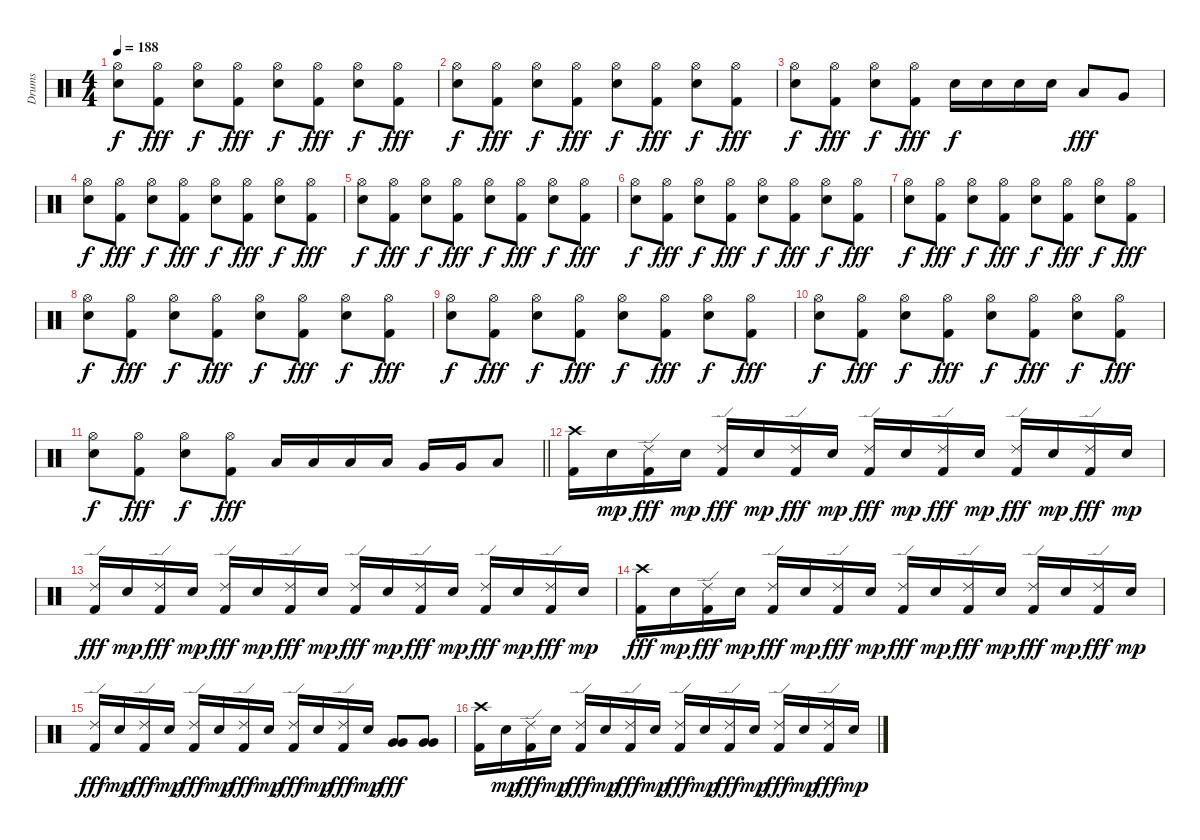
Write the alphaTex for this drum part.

\track ("Drums" "Drums") {instrument percussion}
\staff {score}
\articulation defaults
\ts (4 4)
\tempo 188
\clef neutral
\ks c
("Hi-Hat (open)" "Electric Snare (hit)").8{dy f} ("Hi-Hat (open)" "Kick (hit) 2").8{dy fff} ("Hi-Hat (open)" "Electric Snare (hit)").8{dy f} ("Hi-Hat (open)" "Kick (hit) 2").8{dy fff} ("Hi-Hat (open)" "Electric Snare (hit)").8{dy f} ("Hi-Hat (open)" "Kick (hit) 2").8{dy fff} ("Hi-Hat (open)" "Electric Snare (hit)").8{dy f} ("Hi-Hat (open)" "Kick (hit) 2").8{dy fff} |
("Hi-Hat (open)" "Electric Snare (hit)").8{dy f} ("Hi-Hat (open)" "Kick (hit) 2").8{dy fff} ("Hi-Hat (open)" "Electric Snare (hit)").8{dy f} ("Hi-Hat (open)" "Kick (hit) 2").8{dy fff} ("Hi-Hat (open)" "Electric Snare (hit)").8{dy f} ("Hi-Hat (open)" "Kick (hit) 2").8{dy fff} ("Hi-Hat (open)" "Electric Snare (hit)").8{dy f} ("Hi-Hat (open)" "Kick (hit) 2").8{dy fff} |
("Hi-Hat (open)" "Electric Snare (hit)").8{dy f} ("Hi-Hat (open)" "Kick (hit) 2").8{dy fff} ("Hi-Hat (open)" "Electric Snare (hit)").8{dy f} ("Hi-Hat (open)" "Kick (hit) 2").8{dy fff} "Electric Snare (hit)".16{dy f} "Electric Snare (hit)".16 "Electric Snare (hit)".16 "Electric Snare (hit)".16 "Low Tom (hit)".8{dy fff} "Very Low Tom (hit)".8 |
("Hi-Hat (open)" "Electric Snare (hit)").8{dy f} ("Hi-Hat (open)" "Kick (hit) 2").8{dy fff} ("Hi-Hat (open)" "Electric Snare (hit)").8{dy f} ("Hi-Hat (open)" "Kick (hit) 2").8{dy fff} ("Hi-Hat (open)" "Electric Snare (hit)").8{dy f} ("Hi-Hat (open)" "Kick (hit) 2").8{dy fff} ("Hi-Hat (open)" "Electric Snare (hit)").8{dy f} ("Hi-Hat (open)" "Kick (hit) 2").8{dy fff} |
("Hi-Hat (open)" "Electric Snare (hit)").8{dy f} ("Hi-Hat (open)" "Kick (hit) 2").8{dy fff} ("Hi-Hat (open)" "Electric Snare (hit)").8{dy f} ("Hi-Hat (open)" "Kick (hit) 2").8{dy fff} ("Hi-Hat (open)" "Electric Snare (hit)").8{dy f} ("Hi-Hat (open)" "Kick (hit) 2").8{dy fff} ("Hi-Hat (open)" "Electric Snare (hit)").8{dy f} ("Hi-Hat (open)" "Kick (hit) 2").8{dy fff} |
("Hi-Hat (open)" "Electric Snare (hit)").8{dy f} ("Hi-Hat (open)" "Kick (hit) 2").8{dy fff} ("Hi-Hat (open)" "Electric Snare (hit)").8{dy f} ("Hi-Hat (open)" "Kick (hit) 2").8{dy fff} ("Hi-Hat (open)" "Electric Snare (hit)").8{dy f} ("Hi-Hat (open)" "Kick (hit) 2").8{dy fff} ("Hi-Hat (open)" "Electric Snare (hit)").8{dy f} ("Hi-Hat (open)" "Kick (hit) 2").8{dy fff} |
("Hi-Hat (open)" "Electric Snare (hit)").8{dy f} ("Hi-Hat (open)" "Kick (hit) 2").8{dy fff} ("Hi-Hat (open)" "Electric Snare (hit)").8{dy f} ("Hi-Hat (open)" "Kick (hit) 2").8{dy fff} ("Hi-Hat (open)" "Electric Snare (hit)").8{dy f} ("Hi-Hat (open)" "Kick (hit) 2").8{dy fff} ("Hi-Hat (open)" "Electric Snare (hit)").8{dy f} ("Hi-Hat (open)" "Kick (hit) 2").8{dy fff} |
("Hi-Hat (open)" "Electric Snare (hit)").8{dy f} ("Hi-Hat (open)" "Kick (hit) 2").8{dy fff} ("Hi-Hat (open)" "Electric Snare (hit)").8{dy f} ("Hi-Hat (open)" "Kick (hit) 2").8{dy fff} ("Hi-Hat (open)" "Electric Snare (hit)").8{dy f} ("Hi-Hat (open)" "Kick (hit) 2").8{dy fff} ("Hi-Hat (open)" "Electric Snare (hit)").8{dy f} ("Hi-Hat (open)" "Kick (hit) 2").8{dy fff} |
("Hi-Hat (open)" "Electric Snare (hit)").8{dy f} ("Hi-Hat (open)" "Kick (hit) 2").8{dy fff} ("Hi-Hat (open)" "Electric Snare (hit)").8{dy f} ("Hi-Hat (open)" "Kick (hit) 2").8{dy fff} ("Hi-Hat (open)" "Electric Snare (hit)").8{dy f} ("Hi-Hat (open)" "Kick (hit) 2").8{dy fff} ("Hi-Hat (open)" "Electric Snare (hit)").8{dy f} ("Hi-Hat (open)" "Kick (hit) 2").8{dy fff} |
("Hi-Hat (open)" "Electric Snare (hit)").8{dy f} ("Hi-Hat (open)" "Kick (hit) 2").8{dy fff} ("Hi-Hat (open)" "Electric Snare (hit)").8{dy f} ("Hi-Hat (open)" "Kick (hit) 2").8{dy fff} ("Hi-Hat (open)" "Electric Snare (hit)").8{dy f} ("Hi-Hat (open)" "Kick (hit) 2").8{dy fff} ("Hi-Hat (open)" "Electric Snare (hit)").8{dy f} ("Hi-Hat (open)" "Kick (hit) 2").8{dy fff} |
\barLineRight lightlight
("Hi-Hat (open)" "Electric Snare (hit)").8{dy f} ("Hi-Hat (open)" "Kick (hit) 2").8{dy fff} ("Hi-Hat (open)" "Electric Snare (hit)").8{dy f} ("Hi-Hat (open)" "Kick (hit) 2").8{dy fff} "Low Tom (hit)".16 "Low Tom (hit)".16 "Low Tom (hit)".16 "Low Tom (hit)".16 "Very Low Tom (hit)".16 "Very Low Tom (hit)".16 "Low Floor Tom (hit)".8 |
("Crash high (hit)" "Kick (hit) 2").16 "Electric Snare (hit)".16{dy mp} ("Ride (edge) 2" "Kick (hit) 2").16{dy fff} "Electric Snare (hit)".16{dy mp} ("Ride (edge) 2" "Kick (hit) 2").16{dy fff} "Electric Snare (hit)".16{dy mp} ("Ride (edge) 2" "Kick (hit) 2").16{dy fff} "Electric Snare (hit)".16{dy mp} ("Ride (edge) 2" "Kick (hit) 2").16{dy fff} "Electric Snare (hit)".16{dy mp} ("Ride (edge) 2" "Kick (hit) 2").16{dy fff} "Electric Snare (hit)".16{dy mp} ("Ride (edge) 2" "Kick (hit) 2").16{dy fff} "Electric Snare (hit)".16{dy mp} ("Ride (edge) 2" "Kick (hit) 2").16{dy fff} "Electric Snare (hit)".16{dy mp} |
("Ride (edge) 2" "Kick (hit) 2").16{dy fff} "Electric Snare (hit)".16{dy mp} ("Ride (edge) 2" "Kick (hit) 2").16{dy fff} "Electric Snare (hit)".16{dy mp} ("Ride (edge) 2" "Kick (hit) 2").16{dy fff} "Electric Snare (hit)".16{dy mp} ("Ride (edge) 2" "Kick (hit) 2").16{dy fff} "Electric Snare (hit)".16{dy mp} ("Ride (edge) 2" "Kick (hit) 2").16{dy fff} "Electric Snare (hit)".16{dy mp} ("Ride (edge) 2" "Kick (hit) 2").16{dy fff} "Electric Snare (hit)".16{dy mp} ("Ride (edge) 2" "Kick (hit) 2").16{dy fff} "Electric Snare (hit)".16{dy mp} ("Ride (edge) 2" "Kick (hit) 2").16{dy fff} "Electric Snare (hit)".16{dy mp} |
("Crash high (hit)" "Kick (hit) 2").16{dy fff} "Electric Snare (hit)".16{dy mp} ("Ride (edge) 2" "Kick (hit) 2").16{dy fff} "Electric Snare (hit)".16{dy mp} ("Ride (edge) 2" "Kick (hit) 2").16{dy fff} "Electric Snare (hit)".16{dy mp} ("Ride (edge) 2" "Kick (hit) 2").16{dy fff} "Electric Snare (hit)".16{dy mp} ("Ride (edge) 2" "Kick (hit) 2").16{dy fff} "Electric Snare (hit)".16{dy mp} ("Ride (edge) 2" "Kick (hit) 2").16{dy fff} "Electric Snare (hit)".16{dy mp} ("Ride (edge) 2" "Kick (hit) 2").16{dy fff} "Electric Snare (hit)".16{dy mp} ("Ride (edge) 2" "Kick (hit) 2").16{dy fff} "Electric Snare (hit)".16{dy mp} |
("Ride (edge) 2" "Kick (hit) 2").16{dy fff} "Electric Snare (hit)".16{dy mp} ("Ride (edge) 2" "Kick (hit) 2").16{dy fff} "Electric Snare (hit)".16{dy mp} ("Ride (edge) 2" "Kick (hit) 2").16{dy fff} "Electric Snare (hit)".16{dy mp} ("Ride (edge) 2" "Kick (hit) 2").16{dy fff} "Electric Snare (hit)".16{dy mp} ("Ride (edge) 2" "Kick (hit) 2").16{dy fff} "Electric Snare (hit)".16{dy mp} ("Ride (edge) 2" "Kick (hit) 2").16{dy fff} "Electric Snare (hit)".16{dy mp} ("Very Low Tom (hit)" "Very Low Tom (hit)").8{dy fff} ("Very Low Tom (hit)" "Very Low Tom (hit)").8 |
("Crash high (hit)" "Kick (hit) 2").16 "Electric Snare (hit)".16{dy mp} ("Ride (edge) 2" "Kick (hit) 2").16{dy fff} "Electric Snare (hit)".16{dy mp} ("Ride (edge) 2" "Kick (hit) 2").16{dy fff} "Electric Snare (hit)".16{dy mp} ("Ride (edge) 2" "Kick (hit) 2").16{dy fff} "Electric Snare (hit)".16{dy mp} ("Ride (edge) 2" "Kick (hit) 2").16{dy fff} "Electric Snare (hit)".16{dy mp} ("Ride (edge) 2" "Kick (hit) 2").16{dy fff} "Electric Snare (hit)".16{dy mp} ("Ride (edge) 2" "Kick (hit) 2").16{dy fff} "Electric Snare (hit)".16{dy mp} ("Ride (edge) 2" "Kick (hit) 2").16{dy fff} "Electric Snare (hit)".16{dy mp}
